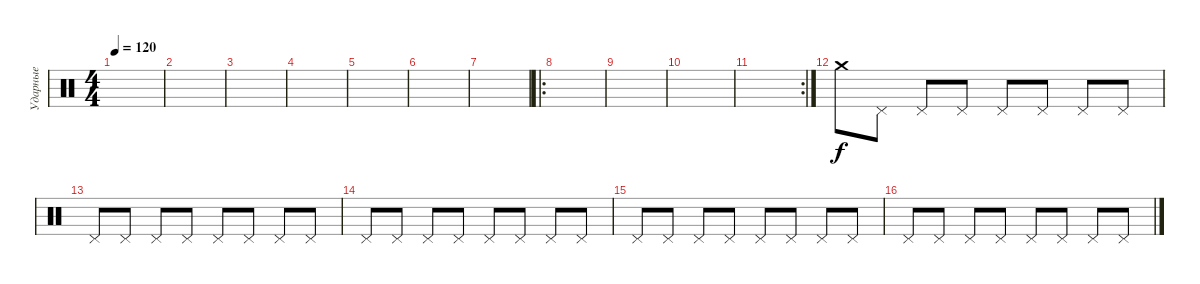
\track ("Ударные" "Ударные") {instrument percussion}
\staff {score}
\articulation defaults
\ts (4 4)
\tempo 120
\clef neutral
\ks c
|
|
|
|
|
|
|
\ro
|
|
|
\rc 2
|
"Crash medium (hit)".8 "Pedal Hi-Hat (hit)".8 "Pedal Hi-Hat (hit)".8 "Pedal Hi-Hat (hit)".8 "Pedal Hi-Hat (hit)".8 "Pedal Hi-Hat (hit)".8 "Pedal Hi-Hat (hit)".8 "Pedal Hi-Hat (hit)".8 |
"Pedal Hi-Hat (hit)".8 "Pedal Hi-Hat (hit)".8 "Pedal Hi-Hat (hit)".8 "Pedal Hi-Hat (hit)".8 "Pedal Hi-Hat (hit)".8 "Pedal Hi-Hat (hit)".8 "Pedal Hi-Hat (hit)".8 "Pedal Hi-Hat (hit)".8 |
"Pedal Hi-Hat (hit)".8 "Pedal Hi-Hat (hit)".8 "Pedal Hi-Hat (hit)".8 "Pedal Hi-Hat (hit)".8 "Pedal Hi-Hat (hit)".8 "Pedal Hi-Hat (hit)".8 "Pedal Hi-Hat (hit)".8 "Pedal Hi-Hat (hit)".8 |
"Pedal Hi-Hat (hit)".8 "Pedal Hi-Hat (hit)".8 "Pedal Hi-Hat (hit)".8 "Pedal Hi-Hat (hit)".8 "Pedal Hi-Hat (hit)".8 "Pedal Hi-Hat (hit)".8 "Pedal Hi-Hat (hit)".8 "Pedal Hi-Hat (hit)".8 |
"Pedal Hi-Hat (hit)".8 "Pedal Hi-Hat (hit)".8 "Pedal Hi-Hat (hit)".8 "Pedal Hi-Hat (hit)".8 "Pedal Hi-Hat (hit)".8 "Pedal Hi-Hat (hit)".8 "Pedal Hi-Hat (hit)".8 "Pedal Hi-Hat (hit)".8
